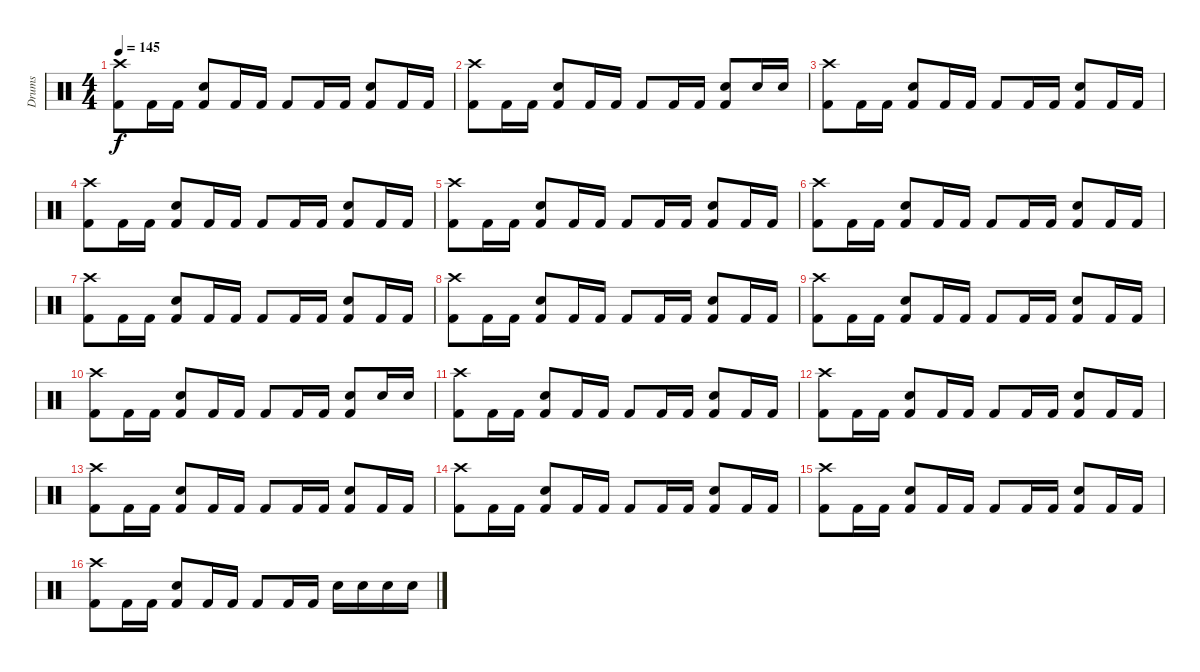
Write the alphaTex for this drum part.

\track ("Drums" "Drums") {instrument percussion}
\staff {score}
\articulation defaults
\ts (4 4)
\tempo 145
\clef neutral
\ks c
("Crash high (hit)" "Kick (hit) 2").8{dy f} "Kick (hit) 2".16 "Kick (hit) 2".16 ("Electric Snare (hit)" "Kick (hit) 2").8 "Kick (hit) 2".16 "Kick (hit) 2".16 "Kick (hit) 2".8 "Kick (hit) 2".16 "Kick (hit) 2".16 ("Electric Snare (hit)" "Kick (hit) 2").8 "Kick (hit) 2".16 "Kick (hit) 2".16 |
("Crash high (hit)" "Kick (hit) 2").8 "Kick (hit) 2".16 "Kick (hit) 2".16 ("Electric Snare (hit)" "Kick (hit) 2").8 "Kick (hit) 2".16 "Kick (hit) 2".16 "Kick (hit) 2".8 "Kick (hit) 2".16 "Kick (hit) 2".16 ("Electric Snare (hit)" "Kick (hit) 2").8 "Electric Snare (hit)".16 "Electric Snare (hit)".16 |
("Crash high (hit)" "Kick (hit) 2").8 "Kick (hit) 2".16 "Kick (hit) 2".16 ("Electric Snare (hit)" "Kick (hit) 2").8 "Kick (hit) 2".16 "Kick (hit) 2".16 "Kick (hit) 2".8 "Kick (hit) 2".16 "Kick (hit) 2".16 ("Electric Snare (hit)" "Kick (hit) 2").8 "Kick (hit) 2".16 "Kick (hit) 2".16 |
("Crash high (hit)" "Kick (hit) 2").8 "Kick (hit) 2".16 "Kick (hit) 2".16 ("Electric Snare (hit)" "Kick (hit) 2").8 "Kick (hit) 2".16 "Kick (hit) 2".16 "Kick (hit) 2".8 "Kick (hit) 2".16 "Kick (hit) 2".16 ("Electric Snare (hit)" "Kick (hit) 2").8 "Kick (hit) 2".16 "Kick (hit) 2".16 |
("Crash high (hit)" "Kick (hit) 2").8 "Kick (hit) 2".16 "Kick (hit) 2".16 ("Electric Snare (hit)" "Kick (hit) 2").8 "Kick (hit) 2".16 "Kick (hit) 2".16 "Kick (hit) 2".8 "Kick (hit) 2".16 "Kick (hit) 2".16 ("Electric Snare (hit)" "Kick (hit) 2").8 "Kick (hit) 2".16 "Kick (hit) 2".16 |
("Crash high (hit)" "Kick (hit) 2").8 "Kick (hit) 2".16 "Kick (hit) 2".16 ("Electric Snare (hit)" "Kick (hit) 2").8 "Kick (hit) 2".16 "Kick (hit) 2".16 "Kick (hit) 2".8 "Kick (hit) 2".16 "Kick (hit) 2".16 ("Electric Snare (hit)" "Kick (hit) 2").8 "Kick (hit) 2".16 "Kick (hit) 2".16 |
("Crash high (hit)" "Kick (hit) 2").8 "Kick (hit) 2".16 "Kick (hit) 2".16 ("Electric Snare (hit)" "Kick (hit) 2").8 "Kick (hit) 2".16 "Kick (hit) 2".16 "Kick (hit) 2".8 "Kick (hit) 2".16 "Kick (hit) 2".16 ("Electric Snare (hit)" "Kick (hit) 2").8 "Kick (hit) 2".16 "Kick (hit) 2".16 |
("Crash high (hit)" "Kick (hit) 2").8 "Kick (hit) 2".16 "Kick (hit) 2".16 ("Electric Snare (hit)" "Kick (hit) 2").8 "Kick (hit) 2".16 "Kick (hit) 2".16 "Kick (hit) 2".8 "Kick (hit) 2".16 "Kick (hit) 2".16 ("Electric Snare (hit)" "Kick (hit) 2").8 "Kick (hit) 2".16 "Kick (hit) 2".16 |
("Crash high (hit)" "Kick (hit) 2").8 "Kick (hit) 2".16 "Kick (hit) 2".16 ("Electric Snare (hit)" "Kick (hit) 2").8 "Kick (hit) 2".16 "Kick (hit) 2".16 "Kick (hit) 2".8 "Kick (hit) 2".16 "Kick (hit) 2".16 ("Electric Snare (hit)" "Kick (hit) 2").8 "Kick (hit) 2".16 "Kick (hit) 2".16 |
("Crash high (hit)" "Kick (hit) 2").8 "Kick (hit) 2".16 "Kick (hit) 2".16 ("Electric Snare (hit)" "Kick (hit) 2").8 "Kick (hit) 2".16 "Kick (hit) 2".16 "Kick (hit) 2".8 "Kick (hit) 2".16 "Kick (hit) 2".16 ("Electric Snare (hit)" "Kick (hit) 2").8 "Electric Snare (hit)".16 "Electric Snare (hit)".16 |
("Crash high (hit)" "Kick (hit) 2").8 "Kick (hit) 2".16 "Kick (hit) 2".16 ("Electric Snare (hit)" "Kick (hit) 2").8 "Kick (hit) 2".16 "Kick (hit) 2".16 "Kick (hit) 2".8 "Kick (hit) 2".16 "Kick (hit) 2".16 ("Electric Snare (hit)" "Kick (hit) 2").8 "Kick (hit) 2".16 "Kick (hit) 2".16 |
("Crash high (hit)" "Kick (hit) 2").8 "Kick (hit) 2".16 "Kick (hit) 2".16 ("Electric Snare (hit)" "Kick (hit) 2").8 "Kick (hit) 2".16 "Kick (hit) 2".16 "Kick (hit) 2".8 "Kick (hit) 2".16 "Kick (hit) 2".16 ("Electric Snare (hit)" "Kick (hit) 2").8 "Kick (hit) 2".16 "Kick (hit) 2".16 |
("Crash high (hit)" "Kick (hit) 2").8 "Kick (hit) 2".16 "Kick (hit) 2".16 ("Electric Snare (hit)" "Kick (hit) 2").8 "Kick (hit) 2".16 "Kick (hit) 2".16 "Kick (hit) 2".8 "Kick (hit) 2".16 "Kick (hit) 2".16 ("Electric Snare (hit)" "Kick (hit) 2").8 "Kick (hit) 2".16 "Kick (hit) 2".16 |
("Crash high (hit)" "Kick (hit) 2").8 "Kick (hit) 2".16 "Kick (hit) 2".16 ("Electric Snare (hit)" "Kick (hit) 2").8 "Kick (hit) 2".16 "Kick (hit) 2".16 "Kick (hit) 2".8 "Kick (hit) 2".16 "Kick (hit) 2".16 ("Electric Snare (hit)" "Kick (hit) 2").8 "Kick (hit) 2".16 "Kick (hit) 2".16 |
("Crash high (hit)" "Kick (hit) 2").8 "Kick (hit) 2".16 "Kick (hit) 2".16 ("Electric Snare (hit)" "Kick (hit) 2").8 "Kick (hit) 2".16 "Kick (hit) 2".16 "Kick (hit) 2".8 "Kick (hit) 2".16 "Kick (hit) 2".16 ("Electric Snare (hit)" "Kick (hit) 2").8 "Kick (hit) 2".16 "Kick (hit) 2".16 |
("Crash high (hit)" "Kick (hit) 2").8 "Kick (hit) 2".16 "Kick (hit) 2".16 ("Electric Snare (hit)" "Kick (hit) 2").8 "Kick (hit) 2".16 "Kick (hit) 2".16 "Kick (hit) 2".8 "Kick (hit) 2".16 "Kick (hit) 2".16 "Electric Snare (hit)".16 "Electric Snare (hit)".16 "Electric Snare (hit)".16 "Electric Snare (hit)".16
